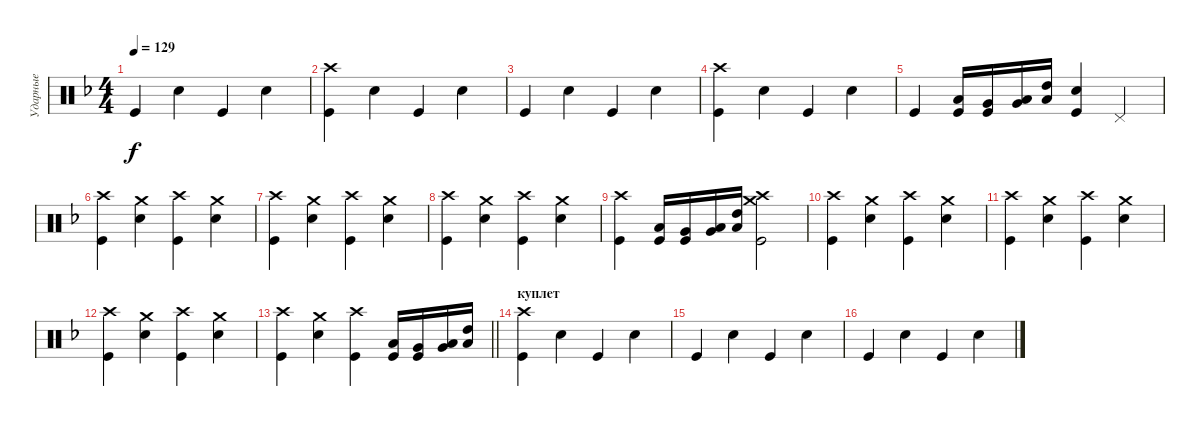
\track ("Ударные" "Ударные") {instrument percussion}
\staff {score}
\articulation defaults
\ts (4 4)
\tempo 129
\clef neutral
\ks dminor "Kick (hit)".4{dy f} "Snare (hit) 2".4 "Kick (hit)".4 "Snare (hit) 2".4
|
("Crash high (hit)" "Kick (hit)").4 "Snare (hit) 2".4 "Kick (hit)".4 "Snare (hit) 2".4 |
"Kick (hit)".4 "Snare (hit) 2".4 "Kick (hit)".4 "Snare (hit) 2".4 |
("Crash high (hit)" "Kick (hit)").4 "Snare (hit) 2".4 "Kick (hit)".4 "Snare (hit) 2".4 |
"Kick (hit)".4 ("Low Floor Tom (hit)" "Kick (hit)").16 ("Very Low Tom (hit)" "Kick (hit)").16 ("Low Tom (hit)" "Very Low Tom (hit)").16 ("High Tom (hit)" "Low Tom (hit)").16 ("Kick (hit)" "Snare (hit) 2").4 "Pedal Hi-Hat (hit)".4 |
("Kick (hit)" "Crash high (hit)").4 ("Snare (hit) 2" "Crash medium (hit)").4 ("Kick (hit)" "Crash high (hit)").4 ("Snare (hit) 2" "Crash medium (hit)").4 |
("Kick (hit)" "Crash high (hit)").4 ("Snare (hit) 2" "Crash medium (hit)").4 ("Kick (hit)" "Crash high (hit)").4 ("Snare (hit) 2" "Crash medium (hit)").4 |
("Kick (hit)" "Crash high (hit)").4 ("Snare (hit) 2" "Crash medium (hit)").4 ("Kick (hit)" "Crash high (hit)").4 ("Snare (hit) 2" "Crash medium (hit)").4 |
("Kick (hit)" "Crash high (hit)").4 ("Low Floor Tom (hit)" "Kick (hit)").16 ("Very Low Tom (hit)" "Kick (hit)").16 ("Low Tom (hit)" "Very Low Tom (hit)").16 ("High Tom (hit)" "Low Tom (hit)").16 ("Kick (hit)" "Crash medium (hit)" "Crash high (hit)").2 |
("Kick (hit)" "Crash high (hit)").4 ("Snare (hit) 2" "Crash medium (hit)").4 ("Kick (hit)" "Crash high (hit)").4 ("Snare (hit) 2" "Crash medium (hit)").4 |
("Kick (hit)" "Crash high (hit)").4 ("Snare (hit) 2" "Crash medium (hit)").4 ("Kick (hit)" "Crash high (hit)").4 ("Snare (hit) 2" "Crash medium (hit)").4 |
("Kick (hit)" "Crash high (hit)").4 ("Snare (hit) 2" "Crash medium (hit)").4 ("Kick (hit)" "Crash high (hit)").4 ("Snare (hit) 2" "Crash medium (hit)").4 |
\barLineRight lightlight
("Kick (hit)" "Crash high (hit)").4 ("Crash medium (hit)" "Snare (hit) 2").4 ("Crash high (hit)" "Kick (hit)").4 ("Low Floor Tom (hit)" "Kick (hit)").16 ("Very Low Tom (hit)" "Kick (hit)").16 ("Low Tom (hit)" "Very Low Tom (hit)").16 ("High Tom (hit)" "Low Tom (hit)").16 |
\section ("" "куплет")
("Crash high (hit)" "Kick (hit)").4 "Snare (hit) 2".4 "Kick (hit)".4 "Snare (hit) 2".4 |
"Kick (hit)".4 "Snare (hit) 2".4 "Kick (hit)".4 "Snare (hit) 2".4 |
"Kick (hit)".4 "Snare (hit) 2".4 "Kick (hit)".4 "Snare (hit) 2".4
